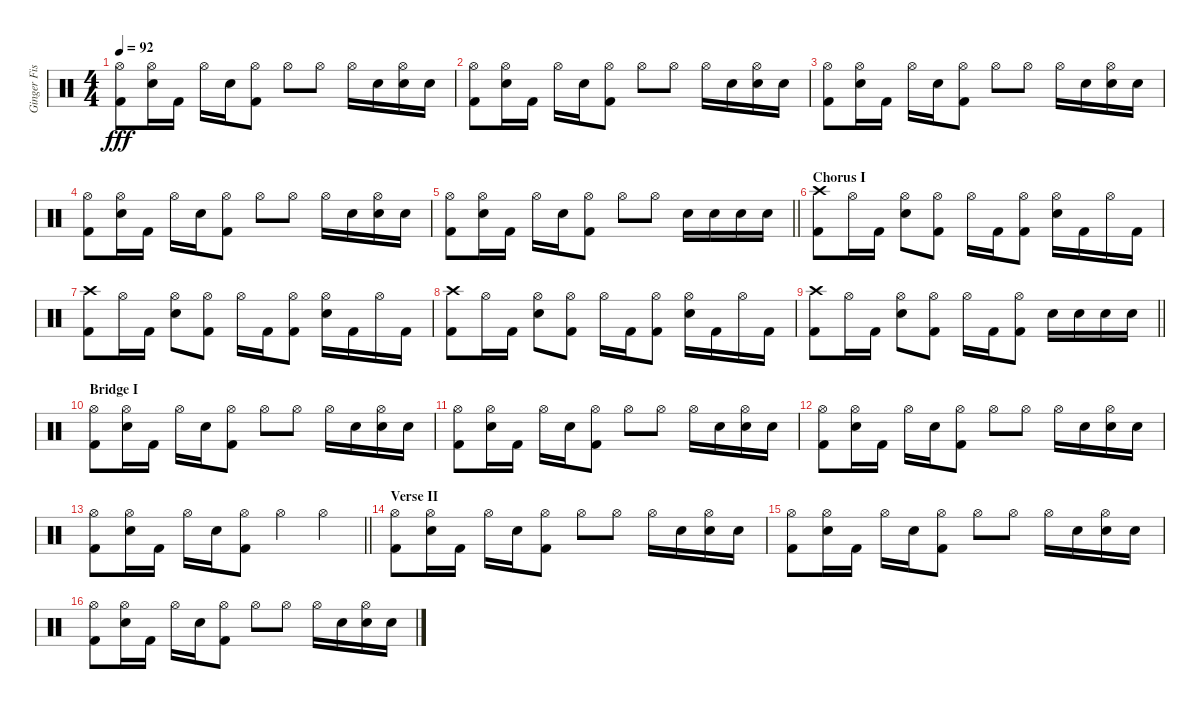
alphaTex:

\track ("Ginger Fish" "Ginger Fis") {instrument percussion}
\staff {score}
\articulation defaults
\ts (4 4)
\tempo 92
\clef neutral
\ks c
("Hi-Hat (open)" "Kick (hit) 2").8{dy fff} ("Hi-Hat (open)" "Electric Snare (hit)").16 "Kick (hit) 2".16 "Hi-Hat (open)".16 "Electric Snare (hit)".16 ("Hi-Hat (open)" "Kick (hit) 2").8 "Hi-Hat (open)".8 "Hi-Hat (open)".8 "Hi-Hat (open)".16 "Electric Snare (hit)".16 ("Hi-Hat (open)" "Electric Snare (hit)").16 "Electric Snare (hit)".16 |
("Hi-Hat (open)" "Kick (hit) 2").8 ("Hi-Hat (open)" "Electric Snare (hit)").16 "Kick (hit) 2".16 "Hi-Hat (open)".16 "Electric Snare (hit)".16 ("Hi-Hat (open)" "Kick (hit) 2").8 "Hi-Hat (open)".8 "Hi-Hat (open)".8 "Hi-Hat (open)".16 "Electric Snare (hit)".16 ("Hi-Hat (open)" "Electric Snare (hit)").16 "Electric Snare (hit)".16 |
("Hi-Hat (open)" "Kick (hit) 2").8 ("Hi-Hat (open)" "Electric Snare (hit)").16 "Kick (hit) 2".16 "Hi-Hat (open)".16 "Electric Snare (hit)".16 ("Hi-Hat (open)" "Kick (hit) 2").8 "Hi-Hat (open)".8 "Hi-Hat (open)".8 "Hi-Hat (open)".16 "Electric Snare (hit)".16 ("Hi-Hat (open)" "Electric Snare (hit)").16 "Electric Snare (hit)".16 |
("Hi-Hat (open)" "Kick (hit) 2").8 ("Hi-Hat (open)" "Electric Snare (hit)").16 "Kick (hit) 2".16 "Hi-Hat (open)".16 "Electric Snare (hit)".16 ("Hi-Hat (open)" "Kick (hit) 2").8 "Hi-Hat (open)".8 "Hi-Hat (open)".8 "Hi-Hat (open)".16 "Electric Snare (hit)".16 ("Hi-Hat (open)" "Electric Snare (hit)").16 "Electric Snare (hit)".16 |
\barLineRight lightlight
("Hi-Hat (open)" "Kick (hit) 2").8 ("Hi-Hat (open)" "Electric Snare (hit)").16 "Kick (hit) 2".16 "Hi-Hat (open)".16 "Electric Snare (hit)".16 ("Hi-Hat (open)" "Kick (hit) 2").8 "Hi-Hat (open)".8 "Hi-Hat (open)".8 "Electric Snare (hit)".16 "Electric Snare (hit)".16 "Electric Snare (hit)".16 "Electric Snare (hit)".16 |
\section ("" "Chorus I")
("Crash high (hit)" "Kick (hit) 2").8 "Hi-Hat (open)".16 "Kick (hit) 2".16 ("Hi-Hat (open)" "Electric Snare (hit)").8 ("Hi-Hat (open)" "Kick (hit) 2").8 "Hi-Hat (open)".16 "Kick (hit) 2".16 ("Hi-Hat (open)" "Kick (hit) 2").8 ("Hi-Hat (open)" "Electric Snare (hit)").16 "Kick (hit) 2".16 "Hi-Hat (open)".16 "Kick (hit) 2".16 |
("Crash high (hit)" "Kick (hit) 2").8 "Hi-Hat (open)".16 "Kick (hit) 2".16 ("Hi-Hat (open)" "Electric Snare (hit)").8 ("Hi-Hat (open)" "Kick (hit) 2").8 "Hi-Hat (open)".16 "Kick (hit) 2".16 ("Hi-Hat (open)" "Kick (hit) 2").8 ("Hi-Hat (open)" "Electric Snare (hit)").16 "Kick (hit) 2".16 "Hi-Hat (open)".16 "Kick (hit) 2".16 |
("Crash high (hit)" "Kick (hit) 2").8 "Hi-Hat (open)".16 "Kick (hit) 2".16 ("Hi-Hat (open)" "Electric Snare (hit)").8 ("Hi-Hat (open)" "Kick (hit) 2").8 "Hi-Hat (open)".16 "Kick (hit) 2".16 ("Hi-Hat (open)" "Kick (hit) 2").8 ("Hi-Hat (open)" "Electric Snare (hit)").16 "Kick (hit) 2".16 "Hi-Hat (open)".16 "Kick (hit) 2".16 |
\barLineRight lightlight
("Crash high (hit)" "Kick (hit) 2").8 "Hi-Hat (open)".16 "Kick (hit) 2".16 ("Hi-Hat (open)" "Electric Snare (hit)").8 ("Hi-Hat (open)" "Kick (hit) 2").8 "Hi-Hat (open)".16 "Kick (hit) 2".16 ("Hi-Hat (open)" "Kick (hit) 2").8 "Electric Snare (hit)".16 "Electric Snare (hit)".16 "Electric Snare (hit)".16 "Electric Snare (hit)".16 |
\section ("" "Bridge I")
("Hi-Hat (open)" "Kick (hit) 2").8 ("Hi-Hat (open)" "Electric Snare (hit)").16 "Kick (hit) 2".16 "Hi-Hat (open)".16 "Electric Snare (hit)".16 ("Hi-Hat (open)" "Kick (hit) 2").8 "Hi-Hat (open)".8 "Hi-Hat (open)".8 "Hi-Hat (open)".16 "Electric Snare (hit)".16 ("Hi-Hat (open)" "Electric Snare (hit)").16 "Electric Snare (hit)".16 |
("Hi-Hat (open)" "Kick (hit) 2").8 ("Hi-Hat (open)" "Electric Snare (hit)").16 "Kick (hit) 2".16 "Hi-Hat (open)".16 "Electric Snare (hit)".16 ("Hi-Hat (open)" "Kick (hit) 2").8 "Hi-Hat (open)".8 "Hi-Hat (open)".8 "Hi-Hat (open)".16 "Electric Snare (hit)".16 ("Hi-Hat (open)" "Electric Snare (hit)").16 "Electric Snare (hit)".16 |
("Hi-Hat (open)" "Kick (hit) 2").8 ("Hi-Hat (open)" "Electric Snare (hit)").16 "Kick (hit) 2".16 "Hi-Hat (open)".16 "Electric Snare (hit)".16 ("Hi-Hat (open)" "Kick (hit) 2").8 "Hi-Hat (open)".8 "Hi-Hat (open)".8 "Hi-Hat (open)".16 "Electric Snare (hit)".16 ("Hi-Hat (open)" "Electric Snare (hit)").16 "Electric Snare (hit)".16 |
\barLineRight lightlight
("Hi-Hat (open)" "Kick (hit) 2").8 ("Hi-Hat (open)" "Electric Snare (hit)").16 "Kick (hit) 2".16 "Hi-Hat (open)".16 "Electric Snare (hit)".16 ("Hi-Hat (open)" "Kick (hit) 2").8 "Hi-Hat (open)".4 "Hi-Hat (open)".4 |
\section ("" "Verse II")
("Hi-Hat (open)" "Kick (hit) 2").8 ("Hi-Hat (open)" "Electric Snare (hit)").16 "Kick (hit) 2".16 "Hi-Hat (open)".16 "Electric Snare (hit)".16 ("Hi-Hat (open)" "Kick (hit) 2").8 "Hi-Hat (open)".8 "Hi-Hat (open)".8 "Hi-Hat (open)".16 "Electric Snare (hit)".16 ("Hi-Hat (open)" "Electric Snare (hit)").16 "Electric Snare (hit)".16 |
("Hi-Hat (open)" "Kick (hit) 2").8 ("Hi-Hat (open)" "Electric Snare (hit)").16 "Kick (hit) 2".16 "Hi-Hat (open)".16 "Electric Snare (hit)".16 ("Hi-Hat (open)" "Kick (hit) 2").8 "Hi-Hat (open)".8 "Hi-Hat (open)".8 "Hi-Hat (open)".16 "Electric Snare (hit)".16 ("Hi-Hat (open)" "Electric Snare (hit)").16 "Electric Snare (hit)".16 |
("Hi-Hat (open)" "Kick (hit) 2").8 ("Hi-Hat (open)" "Electric Snare (hit)").16 "Kick (hit) 2".16 "Hi-Hat (open)".16 "Electric Snare (hit)".16 ("Hi-Hat (open)" "Kick (hit) 2").8 "Hi-Hat (open)".8 "Hi-Hat (open)".8 "Hi-Hat (open)".16 "Electric Snare (hit)".16 ("Hi-Hat (open)" "Electric Snare (hit)").16 "Electric Snare (hit)".16
